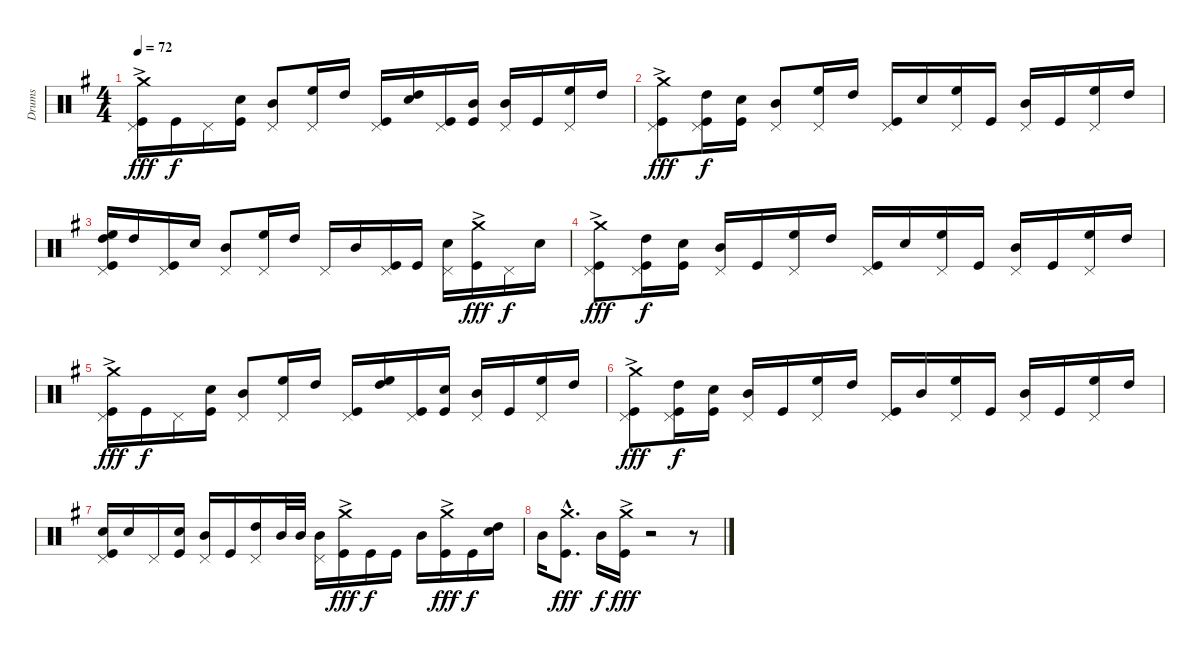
\track ("Drums" "Drums") {instrument percussion}
\staff {score}
\articulation defaults
\ts (4 4)
\tempo 72
\clef neutral
\ks g
("Crash medium (hit)"{ac} "Kick (hit)" "Pedal Hi-Hat (hit)").16{dy fff} "Kick (hit)".16{dy f} "Pedal Hi-Hat (hit)".16 ("Electric Snare (hit)" "Kick (hit)").16 ("Mid Tom (hit)" "Pedal Hi-Hat (hit)").8 ("High Floor Tom (hit)" "Pedal Hi-Hat (hit)").16 "High Tom (hit)".16 ("Kick (hit)" "Pedal Hi-Hat (hit)").16 ("Electric Snare (hit)" "High Tom (hit)").16 ("Kick (hit)" "Pedal Hi-Hat (hit)").16 ("Mid Tom (hit)" "Kick (hit)").16 ("Mid Tom (hit)" "Pedal Hi-Hat (hit)").16 "Kick (hit)".16 ("High Floor Tom (hit)" "Pedal Hi-Hat (hit)").16 "High Tom (hit)".16 |
("Crash medium (hit)"{ac} "Kick (hit)" "Pedal Hi-Hat (hit)").8{dy fff} ("High Tom (hit)" "Kick (hit)" "Pedal Hi-Hat (hit)").16{dy f} ("Electric Snare (hit)" "Kick (hit)").16 ("Mid Tom (hit)" "Pedal Hi-Hat (hit)").8 ("High Floor Tom (hit)" "Pedal Hi-Hat (hit)").16 "High Tom (hit)".16 ("Kick (hit)" "Pedal Hi-Hat (hit)").16 "Electric Snare (hit)".16 ("High Floor Tom (hit)" "Pedal Hi-Hat (hit)").16 "Kick (hit)".16 ("Mid Tom (hit)" "Pedal Hi-Hat (hit)").16 "Kick (hit)".16 ("High Floor Tom (hit)" "Pedal Hi-Hat (hit)").16 "High Tom (hit)".16 |
("High Floor Tom (hit)" "High Tom (hit)" "Kick (hit)" "Pedal Hi-Hat (hit)").16 "High Tom (hit)".16 ("Kick (hit)" "Pedal Hi-Hat (hit)").16 "Electric Snare (hit)".16 ("Mid Tom (hit)" "Pedal Hi-Hat (hit)").8 ("High Floor Tom (hit)" "Pedal Hi-Hat (hit)").16 "High Tom (hit)".16 "Pedal Hi-Hat (hit)".16 "Mid Tom (hit)".16 ("Kick (hit)" "Pedal Hi-Hat (hit)").16 "Kick (hit)".16 ("Electric Snare (hit)" "Pedal Hi-Hat (hit)").16 ("Crash medium (hit)"{ac} "Kick (hit)").16{dy fff} "Pedal Hi-Hat (hit)".16{dy f} "Electric Snare (hit)".16 |
("Crash medium (hit)"{ac} "Kick (hit)" "Pedal Hi-Hat (hit)").8{dy fff} ("High Tom (hit)" "Kick (hit)" "Pedal Hi-Hat (hit)").16{dy f} ("Electric Snare (hit)" "Kick (hit)").16 ("Mid Tom (hit)" "Pedal Hi-Hat (hit)").16 "Kick (hit)".16 ("High Floor Tom (hit)" "Pedal Hi-Hat (hit)").16 "High Tom (hit)".16 ("Kick (hit)" "Pedal Hi-Hat (hit)").16 "Electric Snare (hit)".16 ("High Floor Tom (hit)" "Pedal Hi-Hat (hit)").16 "Kick (hit)".16 ("Mid Tom (hit)" "Pedal Hi-Hat (hit)").16 "Kick (hit)".16 ("High Floor Tom (hit)" "Pedal Hi-Hat (hit)").16 "High Tom (hit)".16 |
("Crash medium (hit)"{ac} "Kick (hit)" "Pedal Hi-Hat (hit)").16{dy fff} "Kick (hit)".16{dy f} "Pedal Hi-Hat (hit)".16 ("Electric Snare (hit)" "Kick (hit)").16 ("Mid Tom (hit)" "Pedal Hi-Hat (hit)").8 ("High Floor Tom (hit)" "Pedal Hi-Hat (hit)").16 "High Tom (hit)".16 ("Kick (hit)" "Pedal Hi-Hat (hit)").16 ("High Floor Tom (hit)" "High Tom (hit)").16 ("Kick (hit)" "Pedal Hi-Hat (hit)").16 ("Electric Snare (hit)" "Kick (hit)").16 ("Mid Tom (hit)" "Pedal Hi-Hat (hit)").16 "Kick (hit)".16 ("High Floor Tom (hit)" "Pedal Hi-Hat (hit)").16 "High Tom (hit)".16 |
("Crash medium (hit)"{ac} "Kick (hit)" "Pedal Hi-Hat (hit)").8{dy fff} ("High Tom (hit)" "Kick (hit)" "Pedal Hi-Hat (hit)").16{dy f} ("Electric Snare (hit)" "Kick (hit)").16 ("Mid Tom (hit)" "Pedal Hi-Hat (hit)").16 "Kick (hit)".16 ("High Floor Tom (hit)" "Pedal Hi-Hat (hit)").16 "High Tom (hit)".16 ("Kick (hit)" "Pedal Hi-Hat (hit)").16 "Mid Tom (hit)".16 ("High Floor Tom (hit)" "Pedal Hi-Hat (hit)").16 "Kick (hit)".16 ("Mid Tom (hit)" "Pedal Hi-Hat (hit)").16 "Kick (hit)".16 ("High Floor Tom (hit)" "Pedal Hi-Hat (hit)").16 "High Tom (hit)".16 |
("Electric Snare (hit)" "Kick (hit)" "Pedal Hi-Hat (hit)").16 "Snare (hit) 2".16 "Pedal Hi-Hat (hit)".16 ("Snare (hit) 2" "Kick (hit)").16 ("Mid Tom (hit)" "Pedal Hi-Hat (hit)").16 "Kick (hit)".16 ("High Tom (hit)" "Pedal Hi-Hat (hit)").16 "Mid Tom (hit)".32 "Mid Tom (hit)".32 ("Mid Tom (hit)" "Pedal Hi-Hat (hit)").16 ("Crash medium (hit)"{ac} "Kick (hit)").16{dy fff} "Kick (hit)".16{dy f} "Kick (hit)".16 "Mid Tom (hit)".16 ("Crash medium (hit)"{ac} "Kick (hit)").16{dy fff} "Kick (hit)".16{dy f} ("High Tom (hit)" "Electric Snare (hit)").16 |
"Mid Tom (hit)".16 ("Crash medium (hit)"{hac} "Kick (hit)"{hac}).8{d dy fff} "Mid Tom (hit)".16{dy f} ("Crash medium (hit)"{ac} "Kick (hit)").16{dy fff} r.2 r.8
